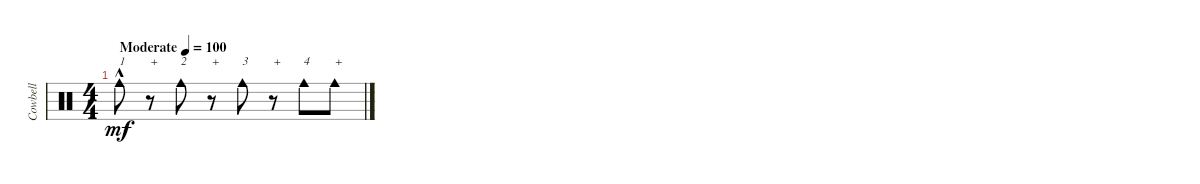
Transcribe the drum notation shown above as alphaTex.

\track ("Cowbell" "Cowbell") {instrument percussion}
\staff {score}
\articulation defaults
\ts (4 4)
\tempo (100 "Moderate")
\clef neutral
\ks c "Cowbell medium (hit)"{hac}.8{txt "1" dy mf}
r.8{txt "+"} "Cowbell medium (hit)".8{txt "2"} r.8{txt "+"} "Cowbell medium (hit)".8{txt "3"} r.8{txt "+"} "Cowbell medium (hit)".8{txt "4"} "Cowbell medium (hit)".8{txt "+"}
